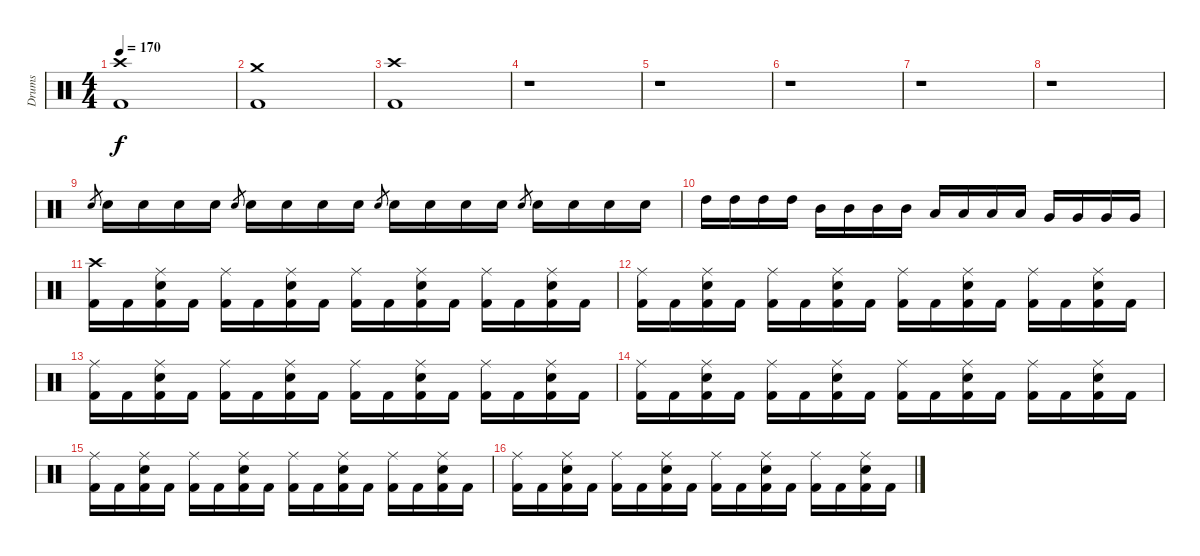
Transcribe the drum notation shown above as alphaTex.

\track ("Drums" "Drums") {instrument percussion}
\staff {score}
\articulation defaults
\ts (4 4)
\tempo 170
\clef neutral
\ks c
("Crash high (hit)" "Kick (hit) 2").1{dy f} |
("Crash medium (hit)" "Kick (hit) 2").1 |
("Crash high (hit)" "Kick (hit) 2").1 |
r.1 |
r.1 |
r.1 |
r.1 |
r.1 |
"Snare (hit) 2".8{gr} "Snare (hit) 2".16 "Snare (hit) 2".16 "Snare (hit) 2".16 "Snare (hit) 2".16 "Snare (hit) 2".8{gr} "Snare (hit) 2".16 "Snare (hit) 2".16 "Snare (hit) 2".16 "Snare (hit) 2".16 "Snare (hit) 2".8{gr} "Snare (hit) 2".16 "Snare (hit) 2".16 "Snare (hit) 2".16 "Snare (hit) 2".16 "Snare (hit) 2".8{gr} "Snare (hit) 2".16 "Snare (hit) 2".16 "Snare (hit) 2".16 "Snare (hit) 2".16 |
"High Tom (hit)".16 "High Tom (hit)".16 "High Tom (hit)".16 "High Tom (hit)".16 "Mid Tom (hit)".16 "Mid Tom (hit)".16 "Mid Tom (hit)".16 "Mid Tom (hit)".16 "Low Tom (hit)".16 "Low Tom (hit)".16 "Low Tom (hit)".16 "Low Tom (hit)".16 "Very Low Tom (hit)".16 "Very Low Tom (hit)".16 "Very Low Tom (hit)".16 "Very Low Tom (hit)".16 |
("Crash high (hit)" "Kick (hit) 2").16 "Kick (hit) 2".16 ("Ride (middle)" "Snare (hit) 2" "Kick (hit) 2").16 "Kick (hit) 2".16 ("Ride (middle)" "Kick (hit) 2").16 "Kick (hit) 2".16 ("Ride (middle)" "Snare (hit) 2" "Kick (hit) 2").16 "Kick (hit) 2".16 ("Ride (middle)" "Kick (hit) 2").16 "Kick (hit) 2".16 ("Ride (middle)" "Snare (hit) 2" "Kick (hit) 2").16 "Kick (hit) 2".16 ("Ride (middle)" "Kick (hit) 2").16 "Kick (hit) 2".16 ("Ride (middle)" "Snare (hit) 2" "Kick (hit) 2").16 "Kick (hit) 2".16 |
("Ride (middle)" "Kick (hit) 2").16 "Kick (hit) 2".16 ("Ride (middle)" "Snare (hit) 2" "Kick (hit) 2").16 "Kick (hit) 2".16 ("Ride (middle)" "Kick (hit) 2").16 "Kick (hit) 2".16 ("Ride (middle)" "Snare (hit) 2" "Kick (hit) 2").16 "Kick (hit) 2".16 ("Ride (middle)" "Kick (hit) 2").16 "Kick (hit) 2".16 ("Ride (middle)" "Snare (hit) 2" "Kick (hit) 2").16 "Kick (hit) 2".16 ("Ride (middle)" "Kick (hit) 2").16 "Kick (hit) 2".16 ("Ride (middle)" "Snare (hit) 2" "Kick (hit) 2").16 "Kick (hit) 2".16 |
("Ride (middle)" "Kick (hit) 2").16 "Kick (hit) 2".16 ("Ride (middle)" "Snare (hit) 2" "Kick (hit) 2").16 "Kick (hit) 2".16 ("Ride (middle)" "Kick (hit) 2").16 "Kick (hit) 2".16 ("Ride (middle)" "Snare (hit) 2" "Kick (hit) 2").16 "Kick (hit) 2".16 ("Ride (middle)" "Kick (hit) 2").16 "Kick (hit) 2".16 ("Ride (middle)" "Snare (hit) 2" "Kick (hit) 2").16 "Kick (hit) 2".16 ("Ride (middle)" "Kick (hit) 2").16 "Kick (hit) 2".16 ("Ride (middle)" "Snare (hit) 2" "Kick (hit) 2").16 "Kick (hit) 2".16 |
("Ride (middle)" "Kick (hit) 2").16 "Kick (hit) 2".16 ("Ride (middle)" "Snare (hit) 2" "Kick (hit) 2").16 "Kick (hit) 2".16 ("Ride (middle)" "Kick (hit) 2").16 "Kick (hit) 2".16 ("Ride (middle)" "Snare (hit) 2" "Kick (hit) 2").16 "Kick (hit) 2".16 ("Ride (middle)" "Kick (hit) 2").16 "Kick (hit) 2".16 ("Ride (middle)" "Snare (hit) 2" "Kick (hit) 2").16 "Kick (hit) 2".16 ("Ride (middle)" "Kick (hit) 2").16 "Kick (hit) 2".16 ("Ride (middle)" "Snare (hit) 2" "Kick (hit) 2").16 "Kick (hit) 2".16 |
("Ride (middle)" "Kick (hit) 2").16 "Kick (hit) 2".16 ("Ride (middle)" "Snare (hit) 2" "Kick (hit) 2").16 "Kick (hit) 2".16 ("Ride (middle)" "Kick (hit) 2").16 "Kick (hit) 2".16 ("Ride (middle)" "Snare (hit) 2" "Kick (hit) 2").16 "Kick (hit) 2".16 ("Ride (middle)" "Kick (hit) 2").16 "Kick (hit) 2".16 ("Ride (middle)" "Snare (hit) 2" "Kick (hit) 2").16 "Kick (hit) 2".16 ("Ride (middle)" "Kick (hit) 2").16 "Kick (hit) 2".16 ("Ride (middle)" "Snare (hit) 2" "Kick (hit) 2").16 "Kick (hit) 2".16 |
("Ride (middle)" "Kick (hit) 2").16 "Kick (hit) 2".16 ("Ride (middle)" "Snare (hit) 2" "Kick (hit) 2").16 "Kick (hit) 2".16 ("Ride (middle)" "Kick (hit) 2").16 "Kick (hit) 2".16 ("Ride (middle)" "Snare (hit) 2" "Kick (hit) 2").16 "Kick (hit) 2".16 ("Ride (middle)" "Kick (hit) 2").16 "Kick (hit) 2".16 ("Ride (middle)" "Snare (hit) 2" "Kick (hit) 2").16 "Kick (hit) 2".16 ("Ride (middle)" "Kick (hit) 2").16 "Kick (hit) 2".16 ("Ride (middle)" "Snare (hit) 2" "Kick (hit) 2").16 "Kick (hit) 2".16
